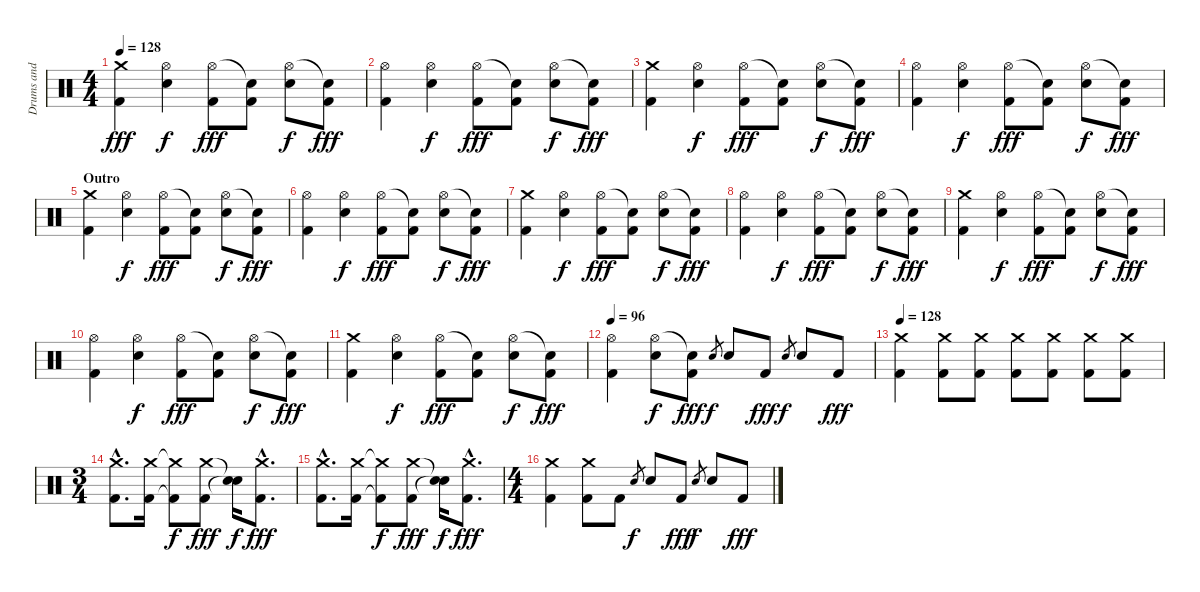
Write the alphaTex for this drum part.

\track ("Drums and Percussion" "Drums and ") {instrument percussion}
\staff {score}
\articulation defaults
\ts (4 4)
\tempo 128
\clef neutral
\ks c
("Crash medium (hit)" "Kick (hit) 2").4{dy fff} ("Hi-Hat (open)" "Electric Snare (hit)").4{dy f} ("Hi-Hat (open)" "Kick (hit) 2").8{dy fff} ("Snare (hit)"{t} "Kick (hit) 2").8 ("Hi-Hat (open)" "Electric Snare (hit)").8{dy f} ("Snare (hit)"{t} "Kick (hit) 2").8{dy fff} |
("Hi-Hat (open)" "Kick (hit) 2").4 ("Hi-Hat (open)" "Electric Snare (hit)").4{dy f} ("Hi-Hat (open)" "Kick (hit) 2").8{dy fff} ("Snare (hit)"{t} "Kick (hit) 2").8 ("Hi-Hat (open)" "Electric Snare (hit)").8{dy f} ("Snare (hit)"{t} "Kick (hit) 2").8{dy fff} |
("Crash medium (hit)" "Kick (hit) 2").4 ("Hi-Hat (open)" "Electric Snare (hit)").4{dy f} ("Hi-Hat (open)" "Kick (hit) 2").8{dy fff} ("Snare (hit)"{t} "Kick (hit) 2").8 ("Hi-Hat (open)" "Electric Snare (hit)").8{dy f} ("Snare (hit)"{t} "Kick (hit) 2").8{dy fff} |
("Hi-Hat (open)" "Kick (hit) 2").4 ("Hi-Hat (open)" "Electric Snare (hit)").4{dy f} ("Hi-Hat (open)" "Kick (hit) 2").8{dy fff} ("Snare (hit)"{t} "Kick (hit) 2").8 ("Hi-Hat (open)" "Electric Snare (hit)").8{dy f} ("Snare (hit)"{t} "Kick (hit) 2").8{dy fff} |
\section ("" "Outro")
("Crash medium (hit)" "Kick (hit) 2").4 ("Hi-Hat (open)" "Electric Snare (hit)").4{dy f} ("Hi-Hat (open)" "Kick (hit) 2").8{dy fff} ("Snare (hit)"{t} "Kick (hit) 2").8 ("Hi-Hat (open)" "Electric Snare (hit)").8{dy f} ("Snare (hit)"{t} "Kick (hit) 2").8{dy fff} |
("Hi-Hat (open)" "Kick (hit) 2").4 ("Hi-Hat (open)" "Electric Snare (hit)").4{dy f} ("Hi-Hat (open)" "Kick (hit) 2").8{dy fff} ("Snare (hit)"{t} "Kick (hit) 2").8 ("Hi-Hat (open)" "Electric Snare (hit)").8{dy f} ("Snare (hit)"{t} "Kick (hit) 2").8{dy fff} |
("Crash medium (hit)" "Kick (hit) 2").4 ("Hi-Hat (open)" "Electric Snare (hit)").4{dy f} ("Hi-Hat (open)" "Kick (hit) 2").8{dy fff} ("Snare (hit)"{t} "Kick (hit) 2").8 ("Hi-Hat (open)" "Electric Snare (hit)").8{dy f} ("Snare (hit)"{t} "Kick (hit) 2").8{dy fff} |
("Hi-Hat (open)" "Kick (hit) 2").4 ("Hi-Hat (open)" "Electric Snare (hit)").4{dy f} ("Hi-Hat (open)" "Kick (hit) 2").8{dy fff} ("Snare (hit)"{t} "Kick (hit) 2").8 ("Hi-Hat (open)" "Electric Snare (hit)").8{dy f} ("Snare (hit)"{t} "Kick (hit) 2").8{dy fff} |
("Crash medium (hit)" "Kick (hit) 2").4 ("Hi-Hat (open)" "Electric Snare (hit)").4{dy f} ("Hi-Hat (open)" "Kick (hit) 2").8{dy fff} ("Snare (hit)"{t} "Kick (hit) 2").8 ("Hi-Hat (open)" "Electric Snare (hit)").8{dy f} ("Snare (hit)"{t} "Kick (hit) 2").8{dy fff} |
("Hi-Hat (open)" "Kick (hit) 2").4 ("Hi-Hat (open)" "Electric Snare (hit)").4{dy f} ("Hi-Hat (open)" "Kick (hit) 2").8{dy fff} ("Snare (hit)"{t} "Kick (hit) 2").8 ("Hi-Hat (open)" "Electric Snare (hit)").8{dy f} ("Snare (hit)"{t} "Kick (hit) 2").8{dy fff} |
("Crash medium (hit)" "Kick (hit) 2").4 ("Hi-Hat (open)" "Electric Snare (hit)").4{dy f} ("Hi-Hat (open)" "Kick (hit) 2").8{dy fff} ("Snare (hit)"{t} "Kick (hit) 2").8 ("Hi-Hat (open)" "Electric Snare (hit)").8{dy f} ("Snare (hit)"{t} "Kick (hit) 2").8{dy fff} |
\tempo 96
("Hi-Hat (open)" "Kick (hit) 2").4 ("Hi-Hat (open)" "Electric Snare (hit)").8{dy f} ("Snare (hit)"{t} "Kick (hit) 2").8{dy fff} "Electric Snare (hit)".8{gr dy f} "Electric Snare (hit)".8 "Kick (hit) 2".8{dy fff} "Electric Snare (hit)".8{gr dy f} "Electric Snare (hit)".8 "Kick (hit) 2".8{dy fff} |
\tempo 128
("Crash medium (hit)" "Kick (hit) 2").4 ("Crash medium (hit)" "Kick (hit) 2").8 ("Crash medium (hit)" "Kick (hit) 2").8 ("Crash medium (hit)" "Kick (hit) 2").8 ("Crash medium (hit)" "Kick (hit) 2").8 ("Crash medium (hit)" "Kick (hit) 2").8 ("Crash medium (hit)" "Kick (hit) 2").8 |
\ts (3 4)
("Crash medium (hit)"{hac} "Kick (hit) 2"{hac}).8{d} ("Crash medium (hit)" "Kick (hit) 2").16 ("Crash medium (hit)"{t} "Kick (hit) 2"{t}).8{dy f} ("Crash medium (hit)" "Kick (hit) 2").8{dy fff} ("Snare (hit)"{t} "Snare (hit)"{t}).16{dy f} ("Crash medium (hit)"{hac} "Kick (hit) 2"{hac}).8{d dy fff} |
("Crash medium (hit)"{hac} "Kick (hit) 2"{hac}).8{d} ("Crash medium (hit)" "Kick (hit) 2").16 ("Crash medium (hit)"{t} "Kick (hit) 2"{t}).8{dy f} ("Crash medium (hit)" "Kick (hit) 2").8{dy fff} ("Snare (hit)"{t} "Snare (hit)"{t}).16{dy f} ("Crash medium (hit)"{hac} "Kick (hit) 2"{hac}).8{d dy fff} |
\ts (4 4)
("Crash medium (hit)" "Kick (hit) 2").4 ("Crash medium (hit)" "Kick (hit) 2").8 "Kick (hit) 2".8 "Electric Snare (hit)".8{gr dy f} "Electric Snare (hit)".8 "Kick (hit) 2".8{dy fff} "Electric Snare (hit)".8{gr dy f} "Electric Snare (hit)".8 "Kick (hit) 2".8{dy fff}
